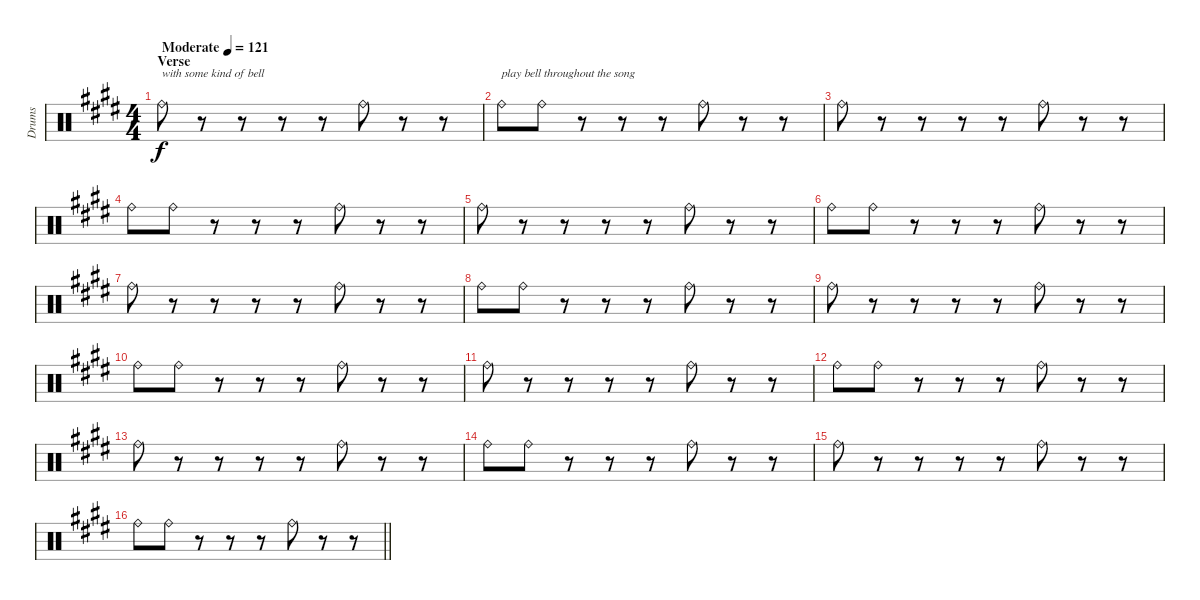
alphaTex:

\track ("Drums" "Drums") {instrument percussion}
\staff {score}
\articulation defaults
\ts (4 4)
\section ("" "Verse")
\tempo (121 "Moderate")
\clef neutral
\ks c#minor "Ride (bell)".8{txt "with some kind of bell" dy f}
r.8 r.8 r.8 r.8 "Ride (bell)".8 r.8 r.8 |
"Ride (bell)".8{txt "play bell throughout the song"} "Ride (bell)".8 r.8 r.8 r.8 "Ride (bell)".8 r.8 r.8 |
"Ride (bell)".8 r.8 r.8 r.8 r.8 "Ride (bell)".8 r.8 r.8 |
"Ride (bell)".8 "Ride (bell)".8 r.8 r.8 r.8 "Ride (bell)".8 r.8 r.8 |
"Ride (bell)".8 r.8 r.8 r.8 r.8 "Ride (bell)".8 r.8 r.8 |
"Ride (bell)".8 "Ride (bell)".8 r.8 r.8 r.8 "Ride (bell)".8 r.8 r.8 |
"Ride (bell)".8 r.8 r.8 r.8 r.8 "Ride (bell)".8 r.8 r.8 |
"Ride (bell)".8 "Ride (bell)".8 r.8 r.8 r.8 "Ride (bell)".8 r.8 r.8 |
"Ride (bell)".8 r.8 r.8 r.8 r.8 "Ride (bell)".8 r.8 r.8 |
"Ride (bell)".8 "Ride (bell)".8 r.8 r.8 r.8 "Ride (bell)".8 r.8 r.8 |
"Ride (bell)".8 r.8 r.8 r.8 r.8 "Ride (bell)".8 r.8 r.8 |
"Ride (bell)".8 "Ride (bell)".8 r.8 r.8 r.8 "Ride (bell)".8 r.8 r.8 |
"Ride (bell)".8 r.8 r.8 r.8 r.8 "Ride (bell)".8 r.8 r.8 |
"Ride (bell)".8 "Ride (bell)".8 r.8 r.8 r.8 "Ride (bell)".8 r.8 r.8 |
"Ride (bell)".8 r.8 r.8 r.8 r.8 "Ride (bell)".8 r.8 r.8 |
\barLineRight lightlight "Ride (bell)".8 "Ride (bell)".8
r.8 r.8 r.8 "Ride (bell)".8 r.8 r.8
